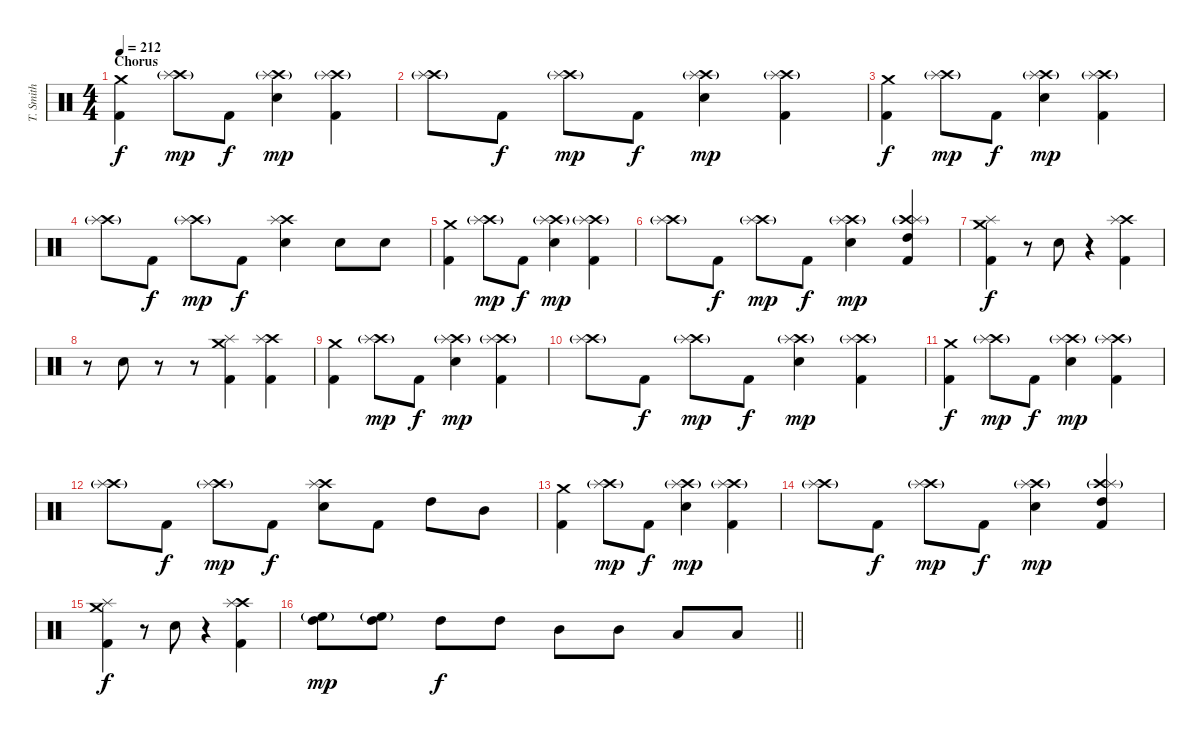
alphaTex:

\track ("T. Smith" "T. Smith") {instrument percussion}
\staff {score}
\articulation defaults
\ts (4 4)
\section ("" "Chorus")
\tempo 212
\clef neutral
\ks c
("Crash medium (hit)" "Kick (hit) 2").4{dy f} ("Crash high (hit)"{g} "Splash (hit)").8{dy mp} "Kick (hit) 2".8{dy f} ("Crash high (hit)"{g} "Splash (hit)" "Electric Snare (hit)").4{dy mp} ("Crash high (hit)"{g} "Splash (hit)" "Kick (hit) 2").4 |
("Crash high (hit)"{g} "Splash (hit)").8 "Kick (hit) 2".8{dy f} ("Crash high (hit)"{g} "Splash (hit)").8{dy mp} "Kick (hit) 2".8{dy f} ("Crash high (hit)"{g} "Splash (hit)" "Electric Snare (hit)").4{dy mp} ("Crash high (hit)"{g} "Splash (hit)" "Kick (hit) 2").4 |
("Crash medium (hit)" "Kick (hit) 2").4{dy f} ("Crash high (hit)"{g} "Splash (hit)").8{dy mp} "Kick (hit) 2".8{dy f} ("Crash high (hit)"{g} "Splash (hit)" "Electric Snare (hit)").4{dy mp} ("Crash high (hit)"{g} "Splash (hit)" "Kick (hit) 2").4 |
("Crash high (hit)"{g} "Splash (hit)").8 "Kick (hit) 2".8{dy f} ("Crash high (hit)"{g} "Splash (hit)").8{dy mp} "Kick (hit) 2".8{dy f} ("Crash high (hit)" "Splash (hit)" "Electric Snare (hit)").4 "Electric Snare (hit)".8 "Electric Snare (hit)".8 |
("Crash medium (hit)" "Kick (hit) 2").4 ("Crash high (hit)"{g} "Splash (hit)").8{dy mp} "Kick (hit) 2".8{dy f} ("Crash high (hit)"{g} "Splash (hit)" "Electric Snare (hit)").4{dy mp} ("Crash high (hit)"{g} "Splash (hit)" "Kick (hit) 2").4 |
("Crash high (hit)"{g} "Splash (hit)").8 "Kick (hit) 2".8{dy f} ("Crash high (hit)"{g} "Splash (hit)").8{dy mp} "Kick (hit) 2".8{dy f} ("Crash high (hit)"{g} "Splash (hit)" "Electric Snare (hit)").4{dy mp} ("Crash high (hit)"{g} "Splash (hit)" "High Tom (hit)" "Kick (hit) 2").4 |
("Crash medium (hit)" "Splash (hit)" "Kick (hit) 2").4{dy f} r.8 "Electric Snare (hit)".8 r.4 ("Crash high (hit)" "Splash (hit)" "Kick (hit) 2").4 |
r.8 "Electric Snare (hit)".8 r.8 r.8 ("Crash medium (hit)" "Splash (hit)" "Kick (hit) 2").4 ("Crash high (hit)" "Splash (hit)" "Kick (hit) 2").4 |
("Crash medium (hit)" "Kick (hit) 2").4 ("Crash high (hit)"{g} "Splash (hit)").8{dy mp} "Kick (hit) 2".8{dy f} ("Crash high (hit)"{g} "Splash (hit)" "Electric Snare (hit)").4{dy mp} ("Crash high (hit)"{g} "Splash (hit)" "Kick (hit) 2").4 |
("Crash high (hit)"{g} "Splash (hit)").8 "Kick (hit) 2".8{dy f} ("Crash high (hit)"{g} "Splash (hit)").8{dy mp} "Kick (hit) 2".8{dy f} ("Crash high (hit)"{g} "Splash (hit)" "Electric Snare (hit)").4{dy mp} ("Crash high (hit)"{g} "Splash (hit)" "Kick (hit) 2").4 |
("Crash medium (hit)" "Kick (hit) 2").4{dy f} ("Crash high (hit)"{g} "Splash (hit)").8{dy mp} "Kick (hit) 2".8{dy f} ("Crash high (hit)"{g} "Splash (hit)" "Electric Snare (hit)").4{dy mp} ("Crash high (hit)"{g} "Splash (hit)" "Kick (hit) 2").4 |
("Crash high (hit)"{g} "Splash (hit)").8 "Kick (hit) 2".8{dy f} ("Crash high (hit)"{g} "Splash (hit)").8{dy mp} "Kick (hit) 2".8{dy f} ("Crash high (hit)" "Splash (hit)" "Electric Snare (hit)").8 "Kick (hit) 2".8 "High Tom (hit)".8 "Mid Tom (hit)".8 |
("Crash medium (hit)" "Kick (hit) 2").4 ("Crash high (hit)"{g} "Splash (hit)").8{dy mp} "Kick (hit) 2".8{dy f} ("Crash high (hit)"{g} "Splash (hit)" "Electric Snare (hit)").4{dy mp} ("Crash high (hit)"{g} "Splash (hit)" "Kick (hit) 2").4 |
("Crash high (hit)"{g} "Splash (hit)").8 "Kick (hit) 2".8{dy f} ("Crash high (hit)"{g} "Splash (hit)").8{dy mp} "Kick (hit) 2".8{dy f} ("Crash high (hit)"{g} "Splash (hit)" "Electric Snare (hit)").4{dy mp} ("Crash high (hit)"{g} "Splash (hit)" "High Tom (hit)" "Kick (hit) 2").4 |
("Crash medium (hit)" "Splash (hit)" "Kick (hit) 2").4{dy f} r.8 "Electric Snare (hit)".8 r.4 ("Crash high (hit)" "Splash (hit)" "Kick (hit) 2").4 |
\barLineRight lightlight
("High Floor Tom (hit)"{g} "High Tom (hit)").8{dy mp} ("High Floor Tom (hit)"{g} "High Tom (hit)").8 "High Tom (hit)".8{dy f} "High Tom (hit)".8 "Mid Tom (hit)".8 "Mid Tom (hit)".8 "Low Tom (hit)".8 "Low Tom (hit)".8
